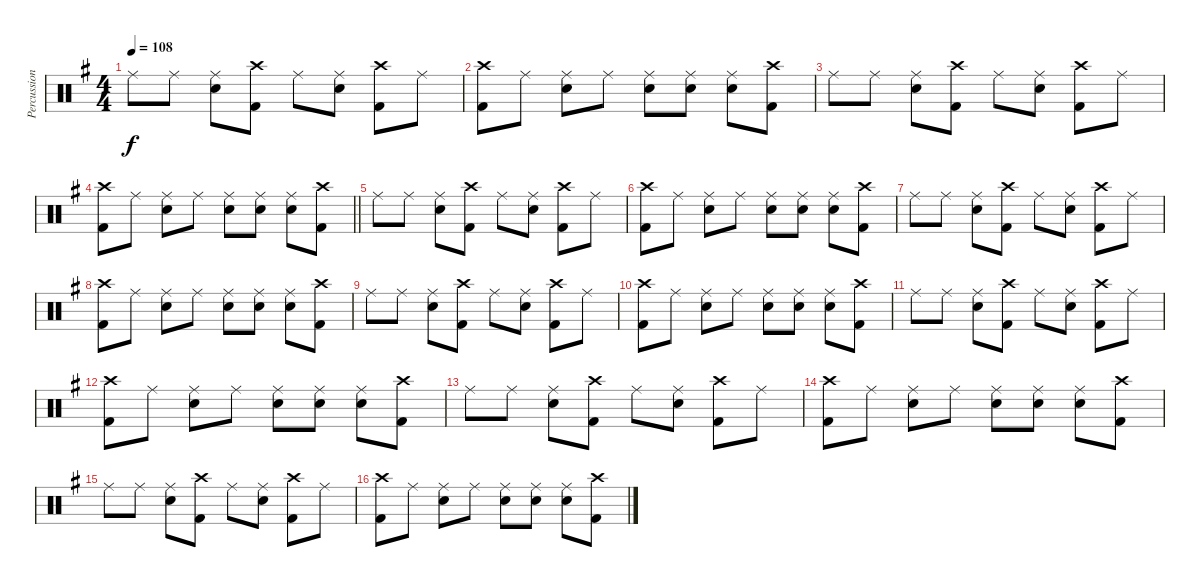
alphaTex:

\track ("Percussion" "Percussion") {instrument percussion}
\staff {score}
\articulation defaults
\ts (4 4)
\tempo 108
\clef neutral
\ks g "Ride (middle)".8{dy f} "Ride (middle)".8
("Ride (middle)" "Snare (hit) 2").8 ("Crash high (hit)" "Kick (hit) 2").8 "Ride (middle)".8 ("Ride (middle)" "Snare (hit) 2").8 ("Crash high (hit)" "Kick (hit) 2").8 "Ride (middle)".8 |
("Crash high (hit)" "Kick (hit) 2").8 "Ride (middle)".8 ("Ride (middle)" "Snare (hit) 2").8 "Ride (middle)".8 ("Ride (middle)" "Snare (hit) 2").8 ("Ride (middle)" "Snare (hit) 2").8 ("Ride (middle)" "Snare (hit) 2").8 ("Crash high (hit)" "Kick (hit) 2").8 |
"Ride (middle)".8 "Ride (middle)".8 ("Ride (middle)" "Snare (hit) 2").8 ("Crash high (hit)" "Kick (hit) 2").8 "Ride (middle)".8 ("Ride (middle)" "Snare (hit) 2").8 ("Crash high (hit)" "Kick (hit) 2").8 "Ride (middle)".8 |
\barLineRight lightlight
("Crash high (hit)" "Kick (hit) 2").8 "Ride (middle)".8 ("Ride (middle)" "Snare (hit) 2").8 "Ride (middle)".8 ("Ride (middle)" "Snare (hit) 2").8 ("Ride (middle)" "Snare (hit) 2").8 ("Ride (middle)" "Snare (hit) 2").8 ("Crash high (hit)" "Kick (hit) 2").8 |
"Ride (middle)".8 "Ride (middle)".8 ("Ride (middle)" "Snare (hit) 2").8 ("Crash high (hit)" "Kick (hit) 2").8 "Ride (middle)".8 ("Ride (middle)" "Snare (hit) 2").8 ("Crash high (hit)" "Kick (hit) 2").8 "Ride (middle)".8 |
("Crash high (hit)" "Kick (hit) 2").8 "Ride (middle)".8 ("Ride (middle)" "Snare (hit) 2").8 "Ride (middle)".8 ("Ride (middle)" "Snare (hit) 2").8 ("Ride (middle)" "Snare (hit) 2").8 ("Ride (middle)" "Snare (hit) 2").8 ("Crash high (hit)" "Kick (hit) 2").8 |
"Ride (middle)".8 "Ride (middle)".8 ("Ride (middle)" "Snare (hit) 2").8 ("Crash high (hit)" "Kick (hit) 2").8 "Ride (middle)".8 ("Ride (middle)" "Snare (hit) 2").8 ("Crash high (hit)" "Kick (hit) 2").8 "Ride (middle)".8 |
("Crash high (hit)" "Kick (hit) 2").8 "Ride (middle)".8 ("Ride (middle)" "Snare (hit) 2").8 "Ride (middle)".8 ("Ride (middle)" "Snare (hit) 2").8 ("Ride (middle)" "Snare (hit) 2").8 ("Ride (middle)" "Snare (hit) 2").8 ("Crash high (hit)" "Kick (hit) 2").8 |
"Ride (middle)".8 "Ride (middle)".8 ("Ride (middle)" "Snare (hit) 2").8 ("Crash high (hit)" "Kick (hit) 2").8 "Ride (middle)".8 ("Ride (middle)" "Snare (hit) 2").8 ("Crash high (hit)" "Kick (hit) 2").8 "Ride (middle)".8 |
("Crash high (hit)" "Kick (hit) 2").8 "Ride (middle)".8 ("Ride (middle)" "Snare (hit) 2").8 "Ride (middle)".8 ("Ride (middle)" "Snare (hit) 2").8 ("Ride (middle)" "Snare (hit) 2").8 ("Ride (middle)" "Snare (hit) 2").8 ("Crash high (hit)" "Kick (hit) 2").8 |
"Ride (middle)".8 "Ride (middle)".8 ("Ride (middle)" "Snare (hit) 2").8 ("Crash high (hit)" "Kick (hit) 2").8 "Ride (middle)".8 ("Ride (middle)" "Snare (hit) 2").8 ("Crash high (hit)" "Kick (hit) 2").8 "Ride (middle)".8 |
("Crash high (hit)" "Kick (hit) 2").8 "Ride (middle)".8 ("Ride (middle)" "Snare (hit) 2").8 "Ride (middle)".8 ("Ride (middle)" "Snare (hit) 2").8 ("Ride (middle)" "Snare (hit) 2").8 ("Ride (middle)" "Snare (hit) 2").8 ("Crash high (hit)" "Kick (hit) 2").8 |
"Ride (middle)".8 "Ride (middle)".8 ("Ride (middle)" "Snare (hit) 2").8 ("Crash high (hit)" "Kick (hit) 2").8 "Ride (middle)".8 ("Ride (middle)" "Snare (hit) 2").8 ("Crash high (hit)" "Kick (hit) 2").8 "Ride (middle)".8 |
("Crash high (hit)" "Kick (hit) 2").8 "Ride (middle)".8 ("Ride (middle)" "Snare (hit) 2").8 "Ride (middle)".8 ("Ride (middle)" "Snare (hit) 2").8 ("Ride (middle)" "Snare (hit) 2").8 ("Ride (middle)" "Snare (hit) 2").8 ("Crash high (hit)" "Kick (hit) 2").8 |
"Ride (middle)".8 "Ride (middle)".8 ("Ride (middle)" "Snare (hit) 2").8 ("Crash high (hit)" "Kick (hit) 2").8 "Ride (middle)".8 ("Ride (middle)" "Snare (hit) 2").8 ("Crash high (hit)" "Kick (hit) 2").8 "Ride (middle)".8 |
("Crash high (hit)" "Kick (hit) 2").8 "Ride (middle)".8 ("Ride (middle)" "Snare (hit) 2").8 "Ride (middle)".8 ("Ride (middle)" "Snare (hit) 2").8 ("Ride (middle)" "Snare (hit) 2").8 ("Ride (middle)" "Snare (hit) 2").8 ("Crash high (hit)" "Kick (hit) 2").8
